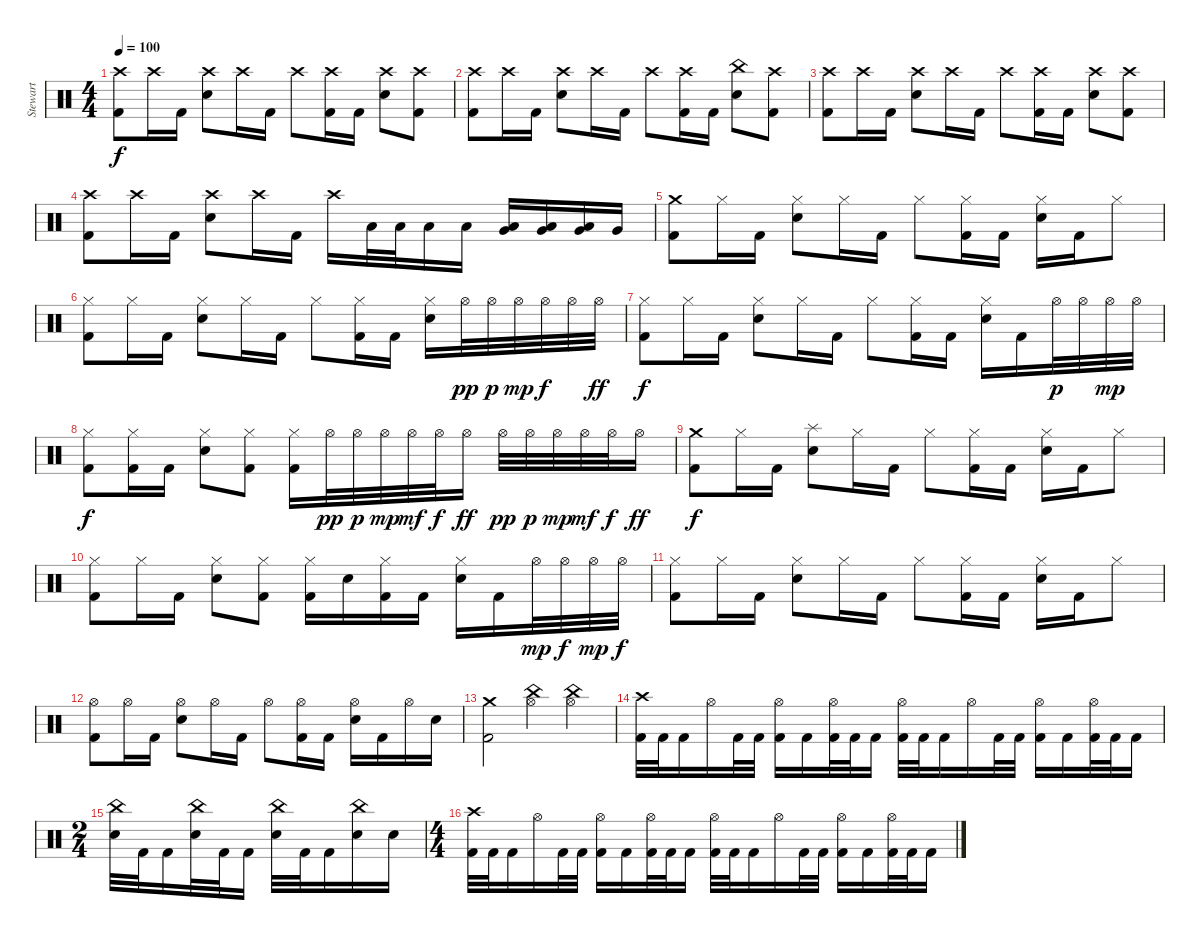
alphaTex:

\track ("Stewart" "Stewart") {instrument percussion}
\staff {score}
\articulation defaults
\ts (4 4)
\tempo 100
\clef neutral
\ks c
("Crash high (hit)" "Kick (hit) 2").8{dy f} "Crash high (hit)".16 "Kick (hit) 2".16 ("Crash high (hit)" "Electric Snare (hit)").8 "Crash high (hit)".16 "Kick (hit) 2".16 "Crash high (hit)".8 ("Crash high (hit)" "Kick (hit) 2").16 "Kick (hit) 2".16 ("Crash high (hit)" "Electric Snare (hit)").8 ("Crash high (hit)" "Kick (hit) 2").8 |
("Crash high (hit)" "Kick (hit) 2").8 "Crash high (hit)".16 "Kick (hit) 2".16 ("Crash high (hit)" "Electric Snare (hit)").8 "Crash high (hit)".16 "Kick (hit) 2".16 "Crash high (hit)".8 ("Crash high (hit)" "Kick (hit) 2").16 "Kick (hit) 2".16 ("China (hit)" "Electric Snare (hit)").8 ("Crash high (hit)" "Kick (hit) 2").8 |
("Crash high (hit)" "Kick (hit) 2").8 "Crash high (hit)".16 "Kick (hit) 2".16 ("Crash high (hit)" "Electric Snare (hit)").8 "Crash high (hit)".16 "Kick (hit) 2".16 "Crash high (hit)".8 ("Crash high (hit)" "Kick (hit) 2").16 "Kick (hit) 2".16 ("Crash high (hit)" "Electric Snare (hit)").8 ("Crash high (hit)" "Kick (hit) 2").8 |
("Crash high (hit)" "Kick (hit) 2").8 "Crash high (hit)".16 "Kick (hit) 2".16 ("Crash high (hit)" "Electric Snare (hit)").8 "Crash high (hit)".16 "Kick (hit) 2".16 "Crash high (hit)".16 "Low Tom (hit)".32 "Low Tom (hit)".32 "Low Tom (hit)".16 "Low Tom (hit)".16 ("Low Tom (hit)" "Very Low Tom (hit)").16 ("Low Tom (hit)" "Very Low Tom (hit)").16 ("Low Tom (hit)" "Very Low Tom (hit)").16 "Very Low Tom (hit)".16 |
("Crash medium (hit)" "Kick (hit) 2").8 "Hi-Hat (closed)".16 "Kick (hit) 2".16 ("Hi-Hat (closed)" "Electric Snare (hit)").8 "Hi-Hat (closed)".16 "Kick (hit) 2".16 "Hi-Hat (closed)".8 ("Hi-Hat (closed)" "Kick (hit) 2").16 "Kick (hit) 2".16 ("Hi-Hat (closed)" "Electric Snare (hit)").16 "Kick (hit) 2".16 "Hi-Hat (closed)".8 |
("Hi-Hat (closed)" "Kick (hit) 2").8 "Hi-Hat (closed)".16 "Kick (hit) 2".16 ("Hi-Hat (closed)" "Electric Snare (hit)").8 "Hi-Hat (closed)".16 "Kick (hit) 2".16 "Hi-Hat (closed)".8 ("Hi-Hat (closed)" "Kick (hit) 2").16 "Kick (hit) 2".16 ("Hi-Hat (closed)" "Electric Snare (hit)").16 "Hi-Hat (open)".32{dy pp} "Hi-Hat (open)".32{dy p} "Hi-Hat (open)".32{dy mp} "Hi-Hat (open)".32{dy f} "Hi-Hat (open)".32 "Hi-Hat (open)".32{dy ff} |
("Hi-Hat (closed)" "Kick (hit) 2").8{dy f} "Hi-Hat (closed)".16 "Kick (hit) 2".16 ("Hi-Hat (closed)" "Electric Snare (hit)").8 "Hi-Hat (closed)".16 "Kick (hit) 2".16 "Hi-Hat (closed)".8 ("Hi-Hat (closed)" "Kick (hit) 2").16 "Kick (hit) 2".16 ("Hi-Hat (closed)" "Electric Snare (hit)").16 "Kick (hit) 2".16 "Hi-Hat (open)".32{dy p} "Hi-Hat (open)".32 "Hi-Hat (open)".32{dy mp} "Hi-Hat (open)".32 |
("Hi-Hat (closed)" "Kick (hit) 2").8{dy f} ("Hi-Hat (closed)" "Kick (hit) 2").16 "Kick (hit) 2".16 ("Hi-Hat (closed)" "Electric Snare (hit)").8 ("Hi-Hat (closed)" "Kick (hit) 2").8 ("Hi-Hat (closed)" "Kick (hit) 2").16 "Hi-Hat (open)".32{dy pp} "Hi-Hat (open)".32{dy p} "Hi-Hat (open)".32{dy mp} "Hi-Hat (open)".32{dy mf} "Hi-Hat (open)".32{dy f} "Hi-Hat (open)".16{dy ff} "Hi-Hat (open)".32{dy pp} "Hi-Hat (open)".32{dy p} "Hi-Hat (open)".32{dy mp} "Hi-Hat (open)".32{dy mf} "Hi-Hat (open)".32{dy f} "Hi-Hat (open)".16{dy ff} |
("Crash medium (hit)" "Kick (hit) 2").8{dy f} "Hi-Hat (closed)".16 "Kick (hit) 2".16 ("Splash (hit)" "Electric Snare (hit)").8 "Hi-Hat (closed)".16 "Kick (hit) 2".16 "Hi-Hat (closed)".8 ("Hi-Hat (closed)" "Kick (hit) 2").16 "Kick (hit) 2".16 ("Hi-Hat (closed)" "Electric Snare (hit)").16 "Kick (hit) 2".16 "Hi-Hat (closed)".8 |
("Hi-Hat (closed)" "Kick (hit) 2").8 "Hi-Hat (closed)".16 "Kick (hit) 2".16 ("Hi-Hat (closed)" "Electric Snare (hit)").8 ("Hi-Hat (closed)" "Kick (hit) 2").8 ("Hi-Hat (closed)" "Kick (hit) 2").16 "Electric Snare (hit)".16 ("Hi-Hat (closed)" "Kick (hit) 2").16 "Kick (hit) 2".16 ("Hi-Hat (closed)" "Electric Snare (hit)").16 "Kick (hit) 2".16 "Hi-Hat (open)".32{dy mp} "Hi-Hat (open)".32{dy f} "Hi-Hat (open)".32{dy mp} "Hi-Hat (open)".32{dy f} |
("Hi-Hat (closed)" "Kick (hit) 2").8 "Hi-Hat (closed)".16 "Kick (hit) 2".16 ("Hi-Hat (closed)" "Electric Snare (hit)").8 "Hi-Hat (closed)".16 "Kick (hit) 2".16 "Hi-Hat (closed)".8 ("Hi-Hat (closed)" "Kick (hit) 2").16 "Kick (hit) 2".16 ("Hi-Hat (closed)" "Electric Snare (hit)").16 "Kick (hit) 2".16 "Hi-Hat (closed)".8 |
("Hi-Hat (open)" "Kick (hit) 2").8 "Hi-Hat (open)".16 "Kick (hit) 2".16 ("Hi-Hat (open)" "Electric Snare (hit)").8 "Hi-Hat (open)".16 "Kick (hit) 2".16 "Hi-Hat (open)".8 ("Hi-Hat (open)" "Kick (hit) 2").16 "Kick (hit) 2".16 ("Hi-Hat (open)" "Electric Snare (hit)").16 "Kick (hit) 2".16 "Hi-Hat (open)".16 "Electric Snare (hit)".16 |
("Crash medium (hit)" "Kick (hit) 2").2 ("China (hit)" "Hi-Hat (open)").4 ("China (hit)" "Hi-Hat (open)").4 |
("Crash high (hit)" "Kick (hit) 2").32 "Kick (hit) 2".32 "Kick (hit) 2".16 "Hi-Hat (open)".16 "Kick (hit) 2".32 "Kick (hit) 2".32 ("Hi-Hat (open)" "Kick (hit) 2").16 "Kick (hit) 2".16 ("Hi-Hat (open)" "Kick (hit) 2").32 "Kick (hit) 2".32 "Kick (hit) 2".16 ("Hi-Hat (open)" "Kick (hit) 2").32 "Kick (hit) 2".32 "Kick (hit) 2".16 "Hi-Hat (open)".16 "Kick (hit) 2".32 "Kick (hit) 2".32 ("Hi-Hat (open)" "Kick (hit) 2").16 "Kick (hit) 2".16 ("Hi-Hat (open)" "Kick (hit) 2").32 "Kick (hit) 2".32 "Kick (hit) 2".16 |
\ts (2 4)
("China (hit)" "Electric Snare (hit)").32 "Kick (hit) 2".32 "Kick (hit) 2".16 ("China (hit)" "Electric Snare (hit)").32 "Kick (hit) 2".32 "Kick (hit) 2".16 ("China (hit)" "Electric Snare (hit)").32 "Kick (hit) 2".32 "Kick (hit) 2".16 ("China (hit)" "Electric Snare (hit)").16 "Electric Snare (hit)".16 |
\ts (4 4)
("Crash high (hit)" "Kick (hit) 2").32 "Kick (hit) 2".32 "Kick (hit) 2".16 "Hi-Hat (open)".16 "Kick (hit) 2".32 "Kick (hit) 2".32 ("Hi-Hat (open)" "Kick (hit) 2").16 "Kick (hit) 2".16 ("Hi-Hat (open)" "Kick (hit) 2").32 "Kick (hit) 2".32 "Kick (hit) 2".16 ("Hi-Hat (open)" "Kick (hit) 2").32 "Kick (hit) 2".32 "Kick (hit) 2".16 "Hi-Hat (open)".16 "Kick (hit) 2".32 "Kick (hit) 2".32 ("Hi-Hat (open)" "Kick (hit) 2").16 "Kick (hit) 2".16 ("Hi-Hat (open)" "Kick (hit) 2").32 "Kick (hit) 2".32 "Kick (hit) 2".16
